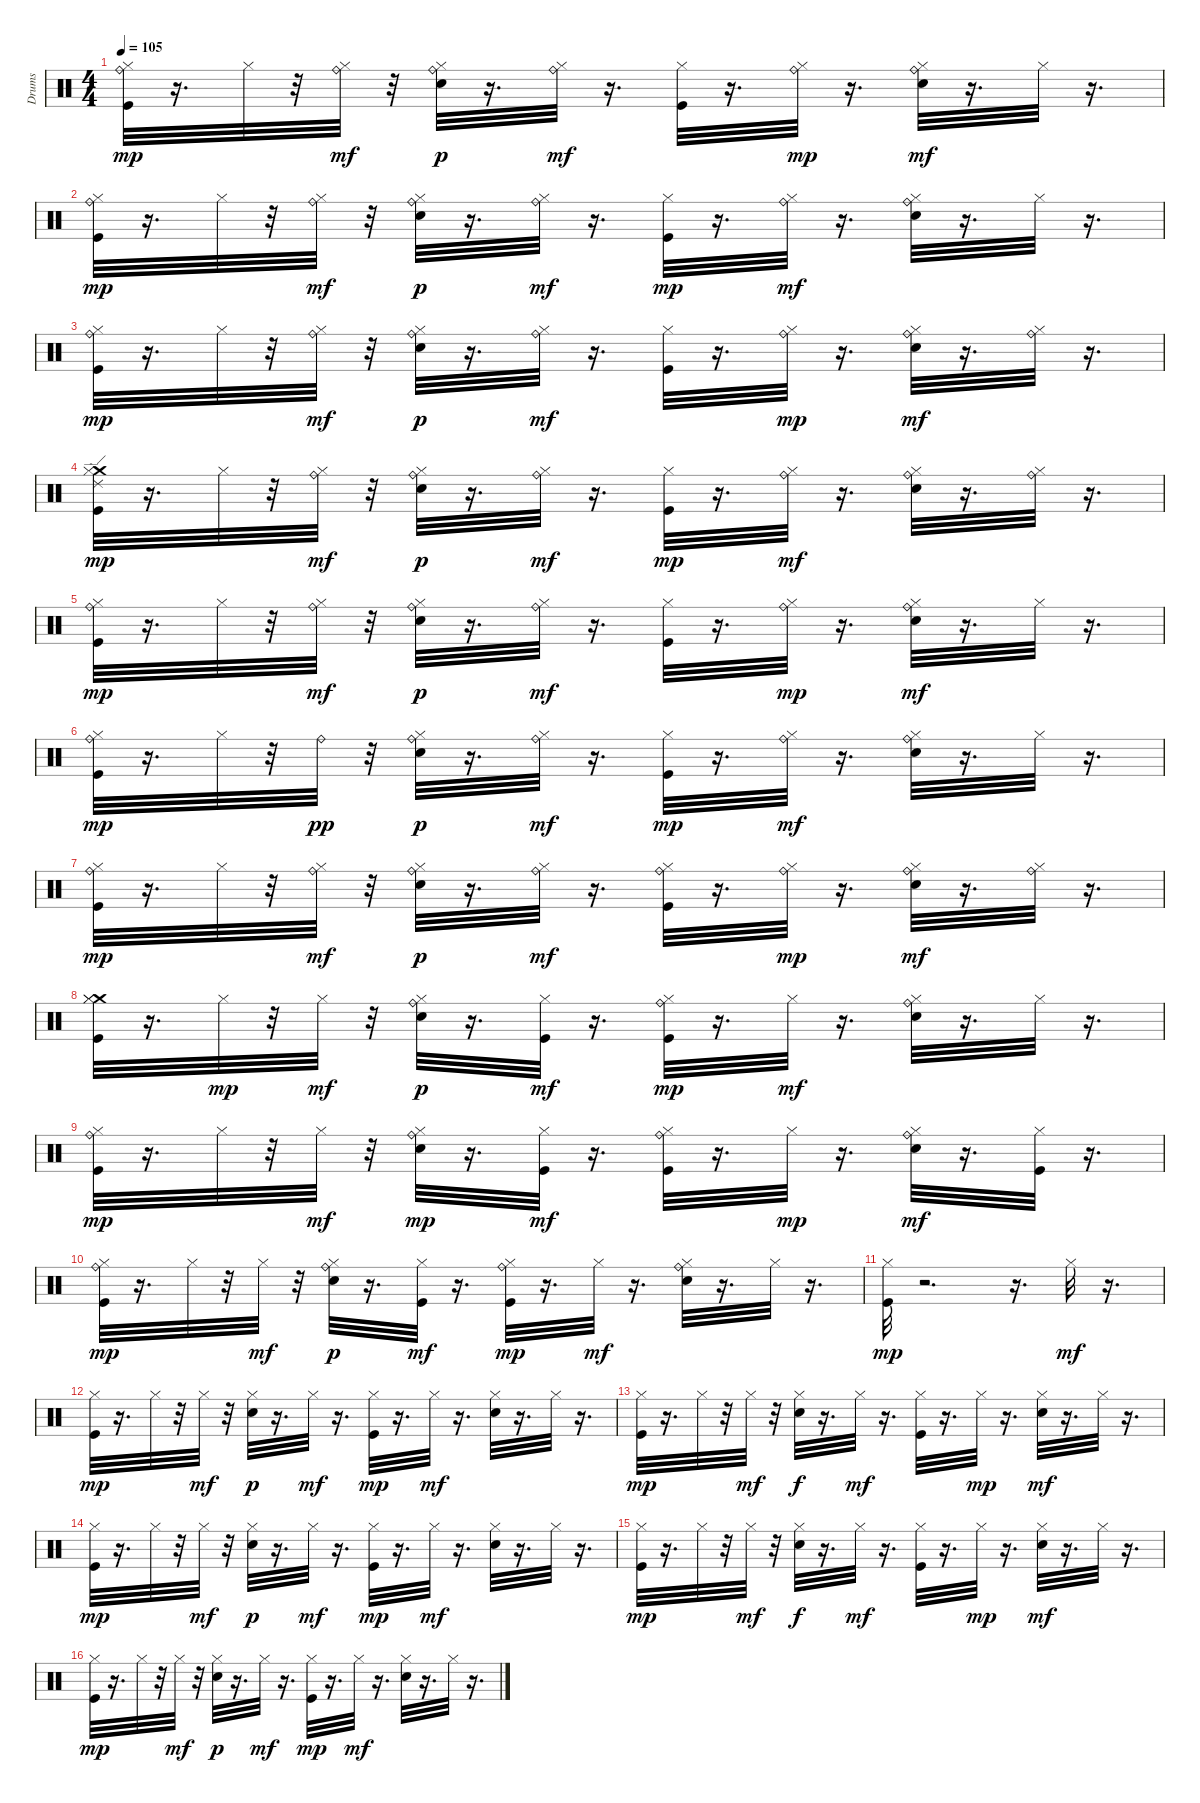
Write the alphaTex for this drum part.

\track ("Drums" "Drums") {instrument percussion}
\staff {score}
\articulation defaults
\ts (4 4)
\tempo 105
\clef neutral
\ks c
("Ride (bell)" "Kick (hit)" "Hi-Hat (closed)").32{dy mp} r.16{d} "Hi-Hat (closed)".32 r.32 ("Ride (bell)" "Hi-Hat (closed)").32{dy mf} r.32 ("Snare (hit) 2" "Ride (bell)" "Hi-Hat (closed)").32{dy p} r.16{d} ("Ride (bell)" "Hi-Hat (closed)").32{dy mf} r.16{d} ("Kick (hit)" "Hi-Hat (closed)").32 r.16{d} ("Ride (bell)" "Hi-Hat (closed)").32{dy mp} r.16{d} ("Snare (hit) 2" "Ride (bell)" "Hi-Hat (closed)").32{dy mf} r.16{d} "Hi-Hat (closed)".32 r.16{d} |
("Ride (bell)" "Kick (hit)" "Hi-Hat (closed)").32{dy mp} r.16{d} "Hi-Hat (closed)".32 r.32 ("Ride (bell)" "Hi-Hat (closed)").32{dy mf} r.32 ("Snare (hit) 2" "Ride (bell)" "Hi-Hat (closed)").32{dy p} r.16{d} ("Ride (bell)" "Hi-Hat (closed)").32{dy mf} r.16{d} ("Kick (hit)" "Hi-Hat (closed)").32{dy mp} r.16{d} ("Ride (bell)" "Hi-Hat (closed)").32{dy mf} r.16{d} ("Snare (hit) 2" "Ride (bell)" "Hi-Hat (closed)").32 r.16{d} "Hi-Hat (closed)".32 r.16{d} |
("Ride (bell)" "Kick (hit)" "Hi-Hat (closed)").32{dy mp} r.16{d} "Hi-Hat (closed)".32 r.32 ("Ride (bell)" "Hi-Hat (closed)").32{dy mf} r.32 ("Snare (hit) 2" "Ride (bell)" "Hi-Hat (closed)").32{dy p} r.16{d} ("Ride (bell)" "Hi-Hat (closed)").32{dy mf} r.16{d} ("Kick (hit)" "Hi-Hat (closed)").32 r.16{d} ("Ride (bell)" "Hi-Hat (closed)").32{dy mp} r.16{d} ("Snare (hit) 2" "Ride (bell)" "Hi-Hat (closed)").32{dy mf} r.16{d} ("Ride (bell)" "Hi-Hat (closed)").32 r.16{d} |
("Ride (edge) 2" "Crash medium (hit)" "Kick (hit)" "Hi-Hat (closed)").32{dy mp} r.16{d} "Hi-Hat (closed)".32 r.32 ("Ride (bell)" "Hi-Hat (closed)").32{dy mf} r.32 ("Snare (hit) 2" "Ride (bell)" "Hi-Hat (closed)").32{dy p} r.16{d} ("Ride (bell)" "Hi-Hat (closed)").32{dy mf} r.16{d} ("Kick (hit)" "Hi-Hat (closed)").32{dy mp} r.16{d} ("Ride (bell)" "Hi-Hat (closed)").32{dy mf} r.16{d} ("Snare (hit) 2" "Ride (bell)" "Hi-Hat (closed)").32 r.16{d} ("Ride (bell)" "Hi-Hat (closed)").32 r.16{d} |
("Ride (bell)" "Kick (hit)" "Hi-Hat (closed)").32{dy mp} r.16{d} "Hi-Hat (closed)".32 r.32 ("Ride (bell)" "Hi-Hat (closed)").32{dy mf} r.32 ("Snare (hit) 2" "Ride (bell)" "Hi-Hat (closed)").32{dy p} r.16{d} ("Ride (bell)" "Hi-Hat (closed)").32{dy mf} r.16{d} ("Kick (hit)" "Hi-Hat (closed)").32 r.16{d} ("Ride (bell)" "Hi-Hat (closed)").32{dy mp} r.16{d} ("Snare (hit) 2" "Ride (bell)" "Hi-Hat (closed)").32{dy mf} r.16{d} "Hi-Hat (closed)".32 r.16{d} |
("Ride (bell)" "Kick (hit)" "Hi-Hat (closed)").32{dy mp} r.16{d} "Hi-Hat (closed)".32 r.32 "Ride (bell)".32{dy pp} r.32 ("Snare (hit) 2" "Ride (bell)" "Hi-Hat (closed)").32{dy p} r.16{d} ("Ride (bell)" "Hi-Hat (closed)").32{dy mf} r.16{d} ("Kick (hit)" "Hi-Hat (closed)").32{dy mp} r.16{d} ("Ride (bell)" "Hi-Hat (closed)").32{dy mf} r.16{d} ("Snare (hit) 2" "Ride (bell)" "Hi-Hat (closed)").32 r.16{d} "Hi-Hat (closed)".32 r.16{d} |
("Ride (bell)" "Kick (hit)" "Hi-Hat (closed)").32{dy mp} r.16{d} "Hi-Hat (closed)".32 r.32 ("Ride (bell)" "Hi-Hat (closed)").32{dy mf} r.32 ("Snare (hit) 2" "Ride (bell)" "Hi-Hat (closed)").32{dy p} r.16{d} ("Ride (bell)" "Hi-Hat (closed)").32{dy mf} r.16{d} ("Ride (bell)" "Kick (hit)" "Hi-Hat (closed)").32 r.16{d} ("Ride (bell)" "Hi-Hat (closed)").32{dy mp} r.16{d} ("Snare (hit) 2" "Ride (bell)" "Hi-Hat (closed)").32{dy mf} r.16{d} ("Ride (bell)" "Hi-Hat (closed)").32 r.16{d} |
("Crash medium (hit)" "Kick (hit)" "Hi-Hat (closed)" "Hi-Hat (closed)").32 r.16{d} "Hi-Hat (closed)".32{dy mp} r.32 "Hi-Hat (closed)".32{dy mf} r.32 ("Snare (hit) 2" "Ride (bell)" "Hi-Hat (closed)").32{dy p} r.16{d} ("Kick (hit)" "Hi-Hat (closed)").32{dy mf} r.16{d} ("Ride (bell)" "Kick (hit)" "Hi-Hat (closed)").32{dy mp} r.16{d} "Hi-Hat (closed)".32{dy mf} r.16{d} ("Snare (hit) 2" "Ride (bell)" "Hi-Hat (closed)").32 r.16{d} "Hi-Hat (closed)".32 r.16{d} |
("Ride (bell)" "Kick (hit)" "Hi-Hat (closed)").32{dy mp} r.16{d} "Hi-Hat (closed)".32 r.32 "Hi-Hat (closed)".32{dy mf} r.32 ("Snare (hit) 2" "Ride (bell)" "Hi-Hat (closed)").32{dy mp} r.16{d} ("Kick (hit)" "Hi-Hat (closed)").32{dy mf} r.16{d} ("Ride (bell)" "Kick (hit)" "Hi-Hat (closed)").32 r.16{d} "Hi-Hat (closed)".32{dy mp} r.16{d} ("Snare (hit) 2" "Ride (bell)" "Hi-Hat (closed)").32{dy mf} r.16{d} ("Kick (hit)" "Hi-Hat (closed)").32 r.16{d} |
("Ride (bell)" "Kick (hit)" "Hi-Hat (closed)").32{dy mp} r.16{d} "Hi-Hat (closed)".32 r.32 "Hi-Hat (closed)".32{dy mf} r.32 ("Snare (hit) 2" "Ride (bell)" "Hi-Hat (closed)").32{dy p} r.16{d} ("Kick (hit)" "Hi-Hat (closed)").32{dy mf} r.16{d} ("Ride (bell)" "Kick (hit)" "Hi-Hat (closed)").32{dy mp} r.16{d} "Hi-Hat (closed)".32{dy mf} r.16{d} ("Snare (hit) 2" "Ride (bell)" "Hi-Hat (closed)").32 r.16{d} "Hi-Hat (closed)".32 r.16{d} |
("Kick (hit)" "Hi-Hat (closed)").32{dy mp} r.2{d} r.16{d} "Hi-Hat (closed)".32{dy mf} r.16{d} |
("Kick (hit)" "Hi-Hat (closed)").32{dy mp} r.16{d} "Hi-Hat (closed)".32 r.32 "Hi-Hat (closed)".32{dy mf} r.32 ("Snare (hit) 2" "Hi-Hat (closed)").32{dy p} r.16{d} "Hi-Hat (closed)".32{dy mf} r.16{d} ("Kick (hit)" "Hi-Hat (closed)").32{dy mp} r.16{d} "Hi-Hat (closed)".32{dy mf} r.16{d} ("Snare (hit) 2" "Hi-Hat (closed)").32 r.16{d} "Hi-Hat (closed)".32 r.16{d} |
("Kick (hit)" "Hi-Hat (closed)").32{dy mp} r.16{d} "Hi-Hat (closed)".32 r.32 "Hi-Hat (closed)".32{dy mf} r.32 ("Snare (hit) 2" "Hi-Hat (closed)").32{dy f} r.16{d} "Hi-Hat (closed)".32{dy mf} r.16{d} ("Kick (hit)" "Hi-Hat (closed)").32 r.16{d} "Hi-Hat (closed)".32{dy mp} r.16{d} ("Snare (hit) 2" "Hi-Hat (closed)").32{dy mf} r.16{d} "Hi-Hat (closed)".32 r.16{d} |
("Kick (hit)" "Hi-Hat (closed)").32{dy mp} r.16{d} "Hi-Hat (closed)".32 r.32 "Hi-Hat (closed)".32{dy mf} r.32 ("Snare (hit) 2" "Hi-Hat (closed)").32{dy p} r.16{d} "Hi-Hat (closed)".32{dy mf} r.16{d} ("Kick (hit)" "Hi-Hat (closed)").32{dy mp} r.16{d} "Hi-Hat (closed)".32{dy mf} r.16{d} ("Snare (hit) 2" "Hi-Hat (closed)").32 r.16{d} "Hi-Hat (closed)".32 r.16{d} |
("Kick (hit)" "Hi-Hat (closed)").32{dy mp} r.16{d} "Hi-Hat (closed)".32 r.32 "Hi-Hat (closed)".32{dy mf} r.32 ("Snare (hit) 2" "Hi-Hat (closed)").32{dy f} r.16{d} "Hi-Hat (closed)".32{dy mf} r.16{d} ("Kick (hit)" "Hi-Hat (closed)").32 r.16{d} "Hi-Hat (closed)".32{dy mp} r.16{d} ("Snare (hit) 2" "Hi-Hat (closed)").32{dy mf} r.16{d} "Hi-Hat (closed)".32 r.16{d} |
("Kick (hit)" "Hi-Hat (closed)").32{dy mp} r.16{d} "Hi-Hat (closed)".32 r.32 "Hi-Hat (closed)".32{dy mf} r.32 ("Snare (hit) 2" "Hi-Hat (closed)").32{dy p} r.16{d} "Hi-Hat (closed)".32{dy mf} r.16{d} ("Kick (hit)" "Hi-Hat (closed)").32{dy mp} r.16{d} "Hi-Hat (closed)".32{dy mf} r.16{d} ("Snare (hit) 2" "Hi-Hat (closed)").32 r.16{d} "Hi-Hat (closed)".32 r.16{d}
